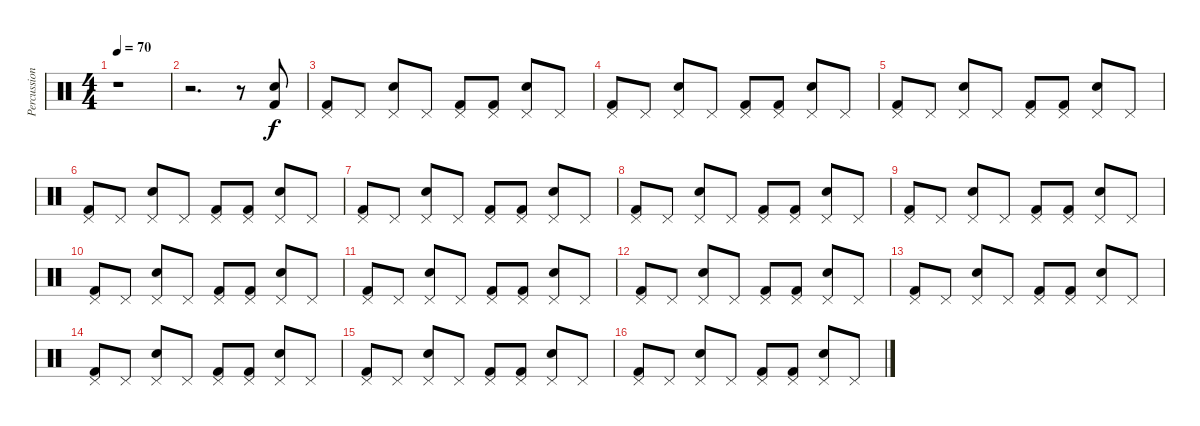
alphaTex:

\track ("Percussion" "Percussion") {instrument percussion}
\staff {score}
\articulation defaults
\ts (4 4)
\tempo 70
\clef neutral
\ks c
r.1{dy f} |
r.2{d} r.8 ("Kick (hit) 2" "Snare (hit) 2").8 |
("Pedal Hi-Hat (hit)" "Kick (hit) 2").8 "Pedal Hi-Hat (hit)".8 ("Pedal Hi-Hat (hit)" "Snare (hit) 2").8 "Pedal Hi-Hat (hit)".8 ("Pedal Hi-Hat (hit)" "Kick (hit) 2").8 ("Pedal Hi-Hat (hit)" "Kick (hit) 2").8 ("Pedal Hi-Hat (hit)" "Snare (hit) 2").8 "Pedal Hi-Hat (hit)".8 |
("Pedal Hi-Hat (hit)" "Kick (hit) 2").8 "Pedal Hi-Hat (hit)".8 ("Pedal Hi-Hat (hit)" "Snare (hit) 2").8 "Pedal Hi-Hat (hit)".8 ("Pedal Hi-Hat (hit)" "Kick (hit) 2").8 ("Pedal Hi-Hat (hit)" "Kick (hit) 2").8 ("Pedal Hi-Hat (hit)" "Snare (hit) 2").8 "Pedal Hi-Hat (hit)".8 |
("Pedal Hi-Hat (hit)" "Kick (hit) 2").8 "Pedal Hi-Hat (hit)".8 ("Pedal Hi-Hat (hit)" "Snare (hit) 2").8 "Pedal Hi-Hat (hit)".8 ("Pedal Hi-Hat (hit)" "Kick (hit) 2").8 ("Pedal Hi-Hat (hit)" "Kick (hit) 2").8 ("Pedal Hi-Hat (hit)" "Snare (hit) 2").8 "Pedal Hi-Hat (hit)".8 |
("Pedal Hi-Hat (hit)" "Kick (hit) 2").8 "Pedal Hi-Hat (hit)".8 ("Pedal Hi-Hat (hit)" "Snare (hit) 2").8 "Pedal Hi-Hat (hit)".8 ("Pedal Hi-Hat (hit)" "Kick (hit) 2").8 ("Pedal Hi-Hat (hit)" "Kick (hit) 2").8 ("Pedal Hi-Hat (hit)" "Snare (hit) 2").8 "Pedal Hi-Hat (hit)".8 |
("Pedal Hi-Hat (hit)" "Kick (hit) 2").8 "Pedal Hi-Hat (hit)".8 ("Pedal Hi-Hat (hit)" "Snare (hit) 2").8 "Pedal Hi-Hat (hit)".8 ("Pedal Hi-Hat (hit)" "Kick (hit) 2").8 ("Pedal Hi-Hat (hit)" "Kick (hit) 2").8 ("Pedal Hi-Hat (hit)" "Snare (hit) 2").8 "Pedal Hi-Hat (hit)".8 |
("Pedal Hi-Hat (hit)" "Kick (hit) 2").8 "Pedal Hi-Hat (hit)".8 ("Pedal Hi-Hat (hit)" "Snare (hit) 2").8 "Pedal Hi-Hat (hit)".8 ("Pedal Hi-Hat (hit)" "Kick (hit) 2").8 ("Pedal Hi-Hat (hit)" "Kick (hit) 2").8 ("Pedal Hi-Hat (hit)" "Snare (hit) 2").8 "Pedal Hi-Hat (hit)".8 |
("Pedal Hi-Hat (hit)" "Kick (hit) 2").8 "Pedal Hi-Hat (hit)".8 ("Pedal Hi-Hat (hit)" "Snare (hit) 2").8 "Pedal Hi-Hat (hit)".8 ("Pedal Hi-Hat (hit)" "Kick (hit) 2").8 ("Pedal Hi-Hat (hit)" "Kick (hit) 2").8 ("Pedal Hi-Hat (hit)" "Snare (hit) 2").8 "Pedal Hi-Hat (hit)".8 |
("Pedal Hi-Hat (hit)" "Kick (hit) 2").8 "Pedal Hi-Hat (hit)".8 ("Pedal Hi-Hat (hit)" "Snare (hit) 2").8 "Pedal Hi-Hat (hit)".8 ("Pedal Hi-Hat (hit)" "Kick (hit) 2").8 ("Pedal Hi-Hat (hit)" "Kick (hit) 2").8 ("Pedal Hi-Hat (hit)" "Snare (hit) 2").8 "Pedal Hi-Hat (hit)".8 |
("Pedal Hi-Hat (hit)" "Kick (hit) 2").8 "Pedal Hi-Hat (hit)".8 ("Pedal Hi-Hat (hit)" "Snare (hit) 2").8 "Pedal Hi-Hat (hit)".8 ("Pedal Hi-Hat (hit)" "Kick (hit) 2").8 ("Pedal Hi-Hat (hit)" "Kick (hit) 2").8 ("Pedal Hi-Hat (hit)" "Snare (hit) 2").8 "Pedal Hi-Hat (hit)".8 |
("Pedal Hi-Hat (hit)" "Kick (hit) 2").8 "Pedal Hi-Hat (hit)".8 ("Pedal Hi-Hat (hit)" "Snare (hit) 2").8 "Pedal Hi-Hat (hit)".8 ("Pedal Hi-Hat (hit)" "Kick (hit) 2").8 ("Pedal Hi-Hat (hit)" "Kick (hit) 2").8 ("Pedal Hi-Hat (hit)" "Snare (hit) 2").8 "Pedal Hi-Hat (hit)".8 |
("Pedal Hi-Hat (hit)" "Kick (hit) 2").8 "Pedal Hi-Hat (hit)".8 ("Pedal Hi-Hat (hit)" "Snare (hit) 2").8 "Pedal Hi-Hat (hit)".8 ("Pedal Hi-Hat (hit)" "Kick (hit) 2").8 ("Pedal Hi-Hat (hit)" "Kick (hit) 2").8 ("Pedal Hi-Hat (hit)" "Snare (hit) 2").8 "Pedal Hi-Hat (hit)".8 |
("Pedal Hi-Hat (hit)" "Kick (hit) 2").8 "Pedal Hi-Hat (hit)".8 ("Pedal Hi-Hat (hit)" "Snare (hit) 2").8 "Pedal Hi-Hat (hit)".8 ("Pedal Hi-Hat (hit)" "Kick (hit) 2").8 ("Pedal Hi-Hat (hit)" "Kick (hit) 2").8 ("Pedal Hi-Hat (hit)" "Snare (hit) 2").8 "Pedal Hi-Hat (hit)".8 |
("Pedal Hi-Hat (hit)" "Kick (hit) 2").8 "Pedal Hi-Hat (hit)".8 ("Pedal Hi-Hat (hit)" "Snare (hit) 2").8 "Pedal Hi-Hat (hit)".8 ("Pedal Hi-Hat (hit)" "Kick (hit) 2").8 ("Pedal Hi-Hat (hit)" "Kick (hit) 2").8 ("Pedal Hi-Hat (hit)" "Snare (hit) 2").8 "Pedal Hi-Hat (hit)".8 |
("Pedal Hi-Hat (hit)" "Kick (hit) 2").8 "Pedal Hi-Hat (hit)".8 ("Pedal Hi-Hat (hit)" "Snare (hit) 2").8 "Pedal Hi-Hat (hit)".8 ("Pedal Hi-Hat (hit)" "Kick (hit) 2").8 ("Pedal Hi-Hat (hit)" "Kick (hit) 2").8 ("Pedal Hi-Hat (hit)" "Snare (hit) 2").8 "Pedal Hi-Hat (hit)".8
